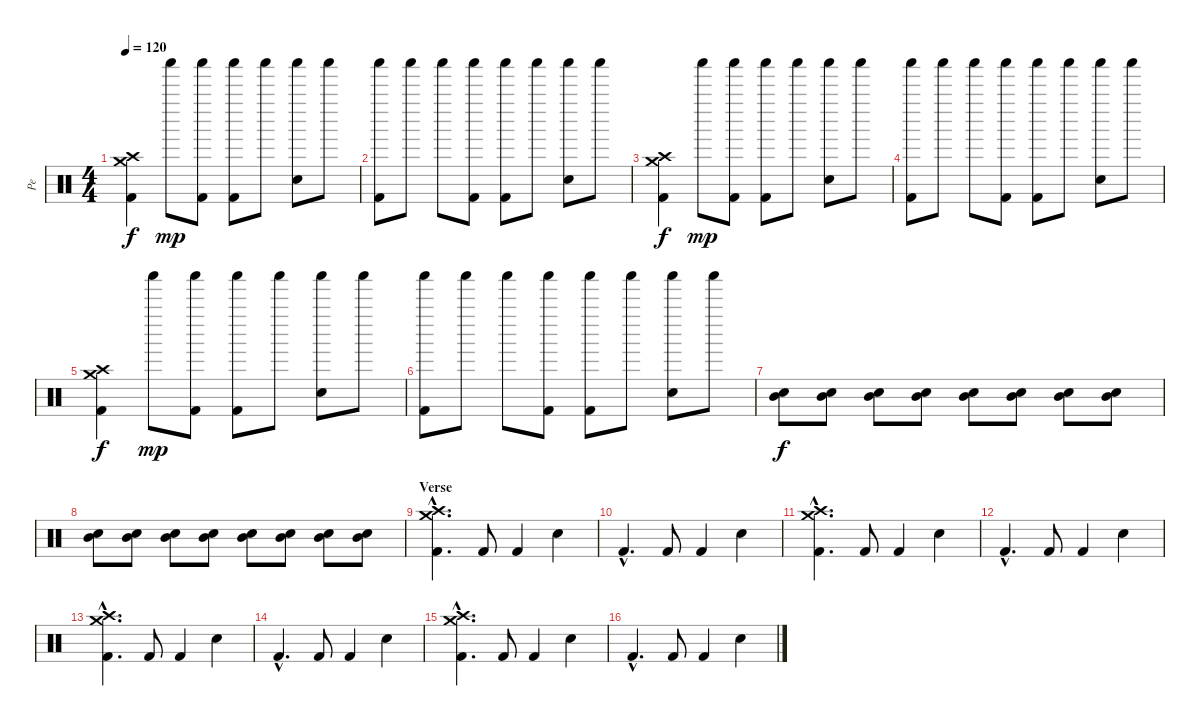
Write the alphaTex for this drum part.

\track ("Pe" "Pe") {instrument percussion}
\staff {score}
\articulation defaults
\ts (4 4)
\tempo 120
\clef neutral
\ks c
("Crash high (hit)" "Crash medium (hit)" "Kick (hit) 2").4{dy f} "Shaker (hit)".8{dy mp} ("Shaker (hit)" "Kick (hit) 2").8 ("Shaker (hit)" "Kick (hit) 2").8 "Shaker (hit)".8 ("Shaker (hit)" "Electric Snare (hit)").8 "Shaker (hit)".8 |
("Shaker (hit)" "Kick (hit) 2").8 "Shaker (hit)".8 "Shaker (hit)".8 ("Shaker (hit)" "Kick (hit) 2").8 ("Shaker (hit)" "Kick (hit) 2").8 "Shaker (hit)".8 ("Shaker (hit)" "Electric Snare (hit)").8 "Shaker (hit)".8 |
("Crash high (hit)" "Crash medium (hit)" "Kick (hit) 2").4{dy f} "Shaker (hit)".8{dy mp} ("Shaker (hit)" "Kick (hit) 2").8 ("Shaker (hit)" "Kick (hit) 2").8 "Shaker (hit)".8 ("Shaker (hit)" "Electric Snare (hit)").8 "Shaker (hit)".8 |
("Shaker (hit)" "Kick (hit) 2").8 "Shaker (hit)".8 "Shaker (hit)".8 ("Shaker (hit)" "Kick (hit) 2").8 ("Shaker (hit)" "Kick (hit) 2").8 "Shaker (hit)".8 ("Shaker (hit)" "Electric Snare (hit)").8 "Shaker (hit)".8 |
("Crash high (hit)" "Crash medium (hit)" "Kick (hit) 2").4{dy f} "Shaker (hit)".8{dy mp} ("Shaker (hit)" "Kick (hit) 2").8 ("Shaker (hit)" "Kick (hit) 2").8 "Shaker (hit)".8 ("Shaker (hit)" "Electric Snare (hit)").8 "Shaker (hit)".8 |
("Shaker (hit)" "Kick (hit) 2").8 "Shaker (hit)".8 "Shaker (hit)".8 ("Shaker (hit)" "Kick (hit) 2").8 ("Shaker (hit)" "Kick (hit) 2").8 "Shaker (hit)".8 ("Shaker (hit)" "Electric Snare (hit)").8 "Shaker (hit)".8 |
("Mid Tom (hit)" "Snare (hit) 2").8{dy f} ("Mid Tom (hit)" "Snare (hit) 2").8 ("Mid Tom (hit)" "Snare (hit) 2").8 ("Mid Tom (hit)" "Snare (hit) 2").8 ("Mid Tom (hit)" "Snare (hit) 2").8 ("Mid Tom (hit)" "Snare (hit) 2").8 ("Mid Tom (hit)" "Snare (hit) 2").8 ("Mid Tom (hit)" "Snare (hit) 2").8 |
("Mid Tom (hit)" "Snare (hit) 2").8 ("Mid Tom (hit)" "Snare (hit) 2").8 ("Mid Tom (hit)" "Snare (hit) 2").8 ("Mid Tom (hit)" "Snare (hit) 2").8 ("Mid Tom (hit)" "Snare (hit) 2").8 ("Mid Tom (hit)" "Snare (hit) 2").8 ("Mid Tom (hit)" "Snare (hit) 2").8 ("Mid Tom (hit)" "Snare (hit) 2").8 |
\section ("" "Verse")
("Crash high (hit)"{hac} "Crash medium (hit)"{hac} "Kick (hit) 2"{hac}).4{d} "Kick (hit) 2".8 "Kick (hit) 2".4 "Electric Snare (hit)".4 |
"Kick (hit) 2"{hac}.4{d} "Kick (hit) 2".8 "Kick (hit) 2".4 "Electric Snare (hit)".4 |
("Crash high (hit)"{hac} "Crash medium (hit)"{hac} "Kick (hit) 2"{hac}).4{d} "Kick (hit) 2".8 "Kick (hit) 2".4 "Electric Snare (hit)".4 |
"Kick (hit) 2"{hac}.4{d} "Kick (hit) 2".8 "Kick (hit) 2".4 "Electric Snare (hit)".4 |
("Crash high (hit)"{hac} "Crash medium (hit)"{hac} "Kick (hit) 2"{hac}).4{d} "Kick (hit) 2".8 "Kick (hit) 2".4 "Electric Snare (hit)".4 |
"Kick (hit) 2"{hac}.4{d} "Kick (hit) 2".8 "Kick (hit) 2".4 "Electric Snare (hit)".4 |
("Crash high (hit)"{hac} "Crash medium (hit)"{hac} "Kick (hit) 2"{hac}).4{d} "Kick (hit) 2".8 "Kick (hit) 2".4 "Electric Snare (hit)".4 |
"Kick (hit) 2"{hac}.4{d} "Kick (hit) 2".8 "Kick (hit) 2".4 "Electric Snare (hit)".4
